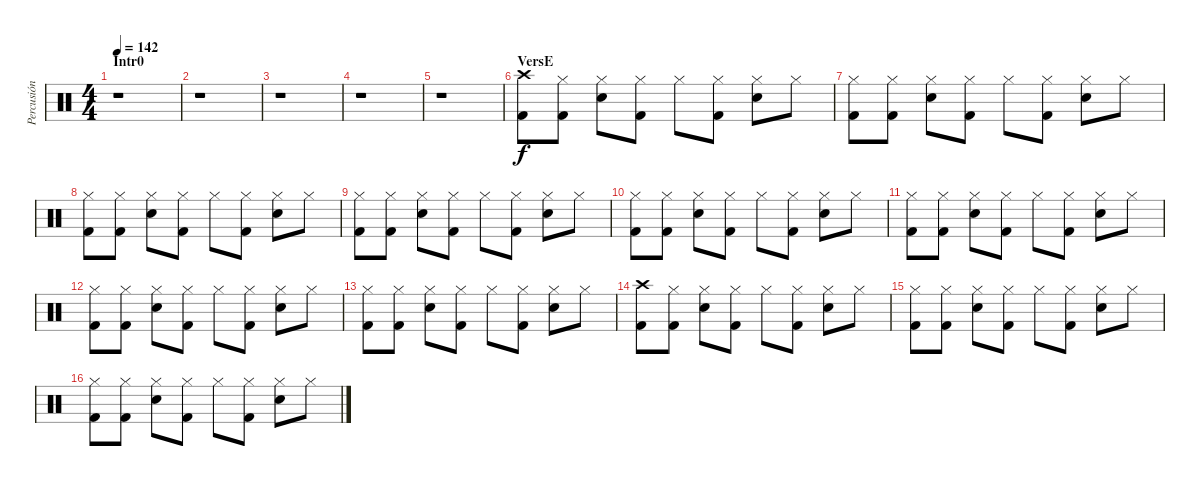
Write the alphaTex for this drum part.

\track ("Percusión  " "Percusión ") {instrument percussion}
\staff {score}
\articulation defaults
\ts (4 4)
\section ("" "Intr0")
\tempo 142
\clef neutral
\ks c
r.1{dy f} |
r.1 |
r.1 |
r.1 |
r.1 |
\section ("" "VersE")
("Crash high (hit)" "Kick (hit) 2").8 ("Hi-Hat (closed)" "Kick (hit) 2").8 ("Electric Snare (hit)" "Hi-Hat (closed)").8 ("Hi-Hat (closed)" "Kick (hit) 2").8 "Hi-Hat (closed)".8 ("Hi-Hat (closed)" "Kick (hit) 2").8 ("Electric Snare (hit)" "Hi-Hat (closed)").8 "Hi-Hat (closed)".8 |
("Hi-Hat (closed)" "Kick (hit) 2").8 ("Hi-Hat (closed)" "Kick (hit) 2").8 ("Electric Snare (hit)" "Hi-Hat (closed)").8 ("Hi-Hat (closed)" "Kick (hit) 2").8 "Hi-Hat (closed)".8 ("Hi-Hat (closed)" "Kick (hit) 2").8 ("Electric Snare (hit)" "Hi-Hat (closed)").8 "Hi-Hat (closed)".8 |
("Hi-Hat (closed)" "Kick (hit) 2").8 ("Hi-Hat (closed)" "Kick (hit) 2").8 ("Electric Snare (hit)" "Hi-Hat (closed)").8 ("Hi-Hat (closed)" "Kick (hit) 2").8 "Hi-Hat (closed)".8 ("Hi-Hat (closed)" "Kick (hit) 2").8 ("Electric Snare (hit)" "Hi-Hat (closed)").8 "Hi-Hat (closed)".8 |
("Hi-Hat (closed)" "Kick (hit) 2").8 ("Hi-Hat (closed)" "Kick (hit) 2").8 ("Electric Snare (hit)" "Hi-Hat (closed)").8 ("Hi-Hat (closed)" "Kick (hit) 2").8 "Hi-Hat (closed)".8 ("Hi-Hat (closed)" "Kick (hit) 2").8 ("Electric Snare (hit)" "Hi-Hat (closed)").8 "Hi-Hat (closed)".8 |
("Hi-Hat (closed)" "Kick (hit) 2").8 ("Hi-Hat (closed)" "Kick (hit) 2").8 ("Electric Snare (hit)" "Hi-Hat (closed)").8 ("Hi-Hat (closed)" "Kick (hit) 2").8 "Hi-Hat (closed)".8 ("Hi-Hat (closed)" "Kick (hit) 2").8 ("Electric Snare (hit)" "Hi-Hat (closed)").8 "Hi-Hat (closed)".8 |
("Hi-Hat (closed)" "Kick (hit) 2").8 ("Hi-Hat (closed)" "Kick (hit) 2").8 ("Electric Snare (hit)" "Hi-Hat (closed)").8 ("Hi-Hat (closed)" "Kick (hit) 2").8 "Hi-Hat (closed)".8 ("Hi-Hat (closed)" "Kick (hit) 2").8 ("Electric Snare (hit)" "Hi-Hat (closed)").8 "Hi-Hat (closed)".8 |
("Hi-Hat (closed)" "Kick (hit) 2").8 ("Hi-Hat (closed)" "Kick (hit) 2").8 ("Electric Snare (hit)" "Hi-Hat (closed)").8 ("Hi-Hat (closed)" "Kick (hit) 2").8 "Hi-Hat (closed)".8 ("Hi-Hat (closed)" "Kick (hit) 2").8 ("Electric Snare (hit)" "Hi-Hat (closed)").8 "Hi-Hat (closed)".8 |
("Hi-Hat (closed)" "Kick (hit) 2").8 ("Hi-Hat (closed)" "Kick (hit) 2").8 ("Electric Snare (hit)" "Hi-Hat (closed)").8 ("Hi-Hat (closed)" "Kick (hit) 2").8 "Hi-Hat (closed)".8 ("Hi-Hat (closed)" "Kick (hit) 2").8 ("Electric Snare (hit)" "Hi-Hat (closed)").8 "Hi-Hat (closed)".8 |
("Crash high (hit)" "Kick (hit) 2").8 ("Hi-Hat (closed)" "Kick (hit) 2").8 ("Electric Snare (hit)" "Hi-Hat (closed)").8 ("Hi-Hat (closed)" "Kick (hit) 2").8 "Hi-Hat (closed)".8 ("Hi-Hat (closed)" "Kick (hit) 2").8 ("Electric Snare (hit)" "Hi-Hat (closed)").8 "Hi-Hat (closed)".8 |
("Hi-Hat (closed)" "Kick (hit) 2").8 ("Hi-Hat (closed)" "Kick (hit) 2").8 ("Electric Snare (hit)" "Hi-Hat (closed)").8 ("Hi-Hat (closed)" "Kick (hit) 2").8 "Hi-Hat (closed)".8 ("Hi-Hat (closed)" "Kick (hit) 2").8 ("Electric Snare (hit)" "Hi-Hat (closed)").8 "Hi-Hat (closed)".8 |
("Hi-Hat (closed)" "Kick (hit) 2").8 ("Hi-Hat (closed)" "Kick (hit) 2").8 ("Electric Snare (hit)" "Hi-Hat (closed)").8 ("Hi-Hat (closed)" "Kick (hit) 2").8 "Hi-Hat (closed)".8 ("Hi-Hat (closed)" "Kick (hit) 2").8 ("Electric Snare (hit)" "Hi-Hat (closed)").8 "Hi-Hat (closed)".8
